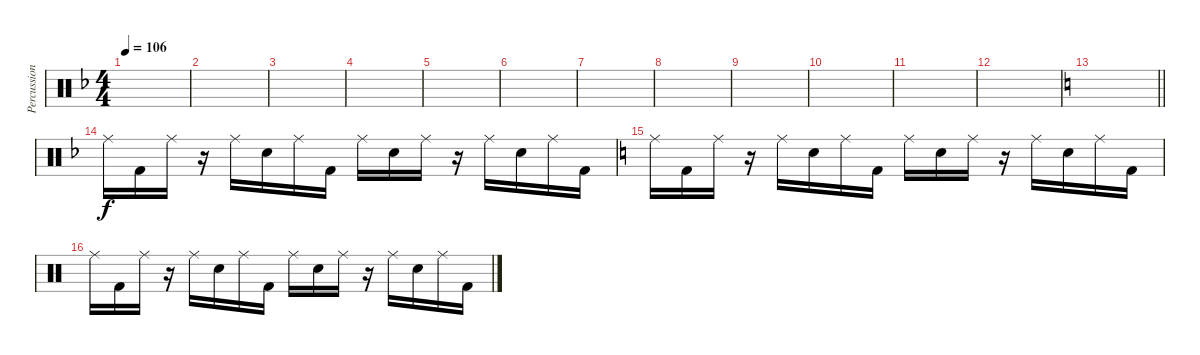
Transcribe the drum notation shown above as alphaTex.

\track ("Percussions" "Percussion") {instrument percussion}
\staff {score}
\articulation defaults
\ts (4 4)
\tempo 106
\clef neutral
\ks f
|
|
|
|
|
|
|
|
|
|
|
|
\barLineRight lightlight
\ks c
|
\ks f "Ride (middle)".16 "Kick (hit) 2".16 "Ride (middle)".16
r.16 "Ride (middle)".16 "Electric Snare (hit)".16 "Ride (middle)".16 "Kick (hit) 2".16 "Ride (middle)".16 "Electric Snare (hit)".16 "Ride (middle)".16 r.16 "Ride (middle)".16 "Electric Snare (hit)".16 "Ride (middle)".16 "Kick (hit) 2".16 |
\ks c "Ride (middle)".16 "Kick (hit) 2".16 "Ride (middle)".16
r.16 "Ride (middle)".16 "Electric Snare (hit)".16 "Ride (middle)".16 "Kick (hit) 2".16 "Ride (middle)".16 "Electric Snare (hit)".16 "Ride (middle)".16 r.16 "Ride (middle)".16 "Electric Snare (hit)".16 "Ride (middle)".16 "Kick (hit) 2".16 |
"Ride (middle)".16 "Kick (hit) 2".16 "Ride (middle)".16 r.16 "Ride (middle)".16 "Electric Snare (hit)".16 "Ride (middle)".16 "Kick (hit) 2".16 "Ride (middle)".16 "Electric Snare (hit)".16 "Ride (middle)".16 r.16 "Ride (middle)".16 "Electric Snare (hit)".16 "Ride (middle)".16 "Kick (hit) 2".16
